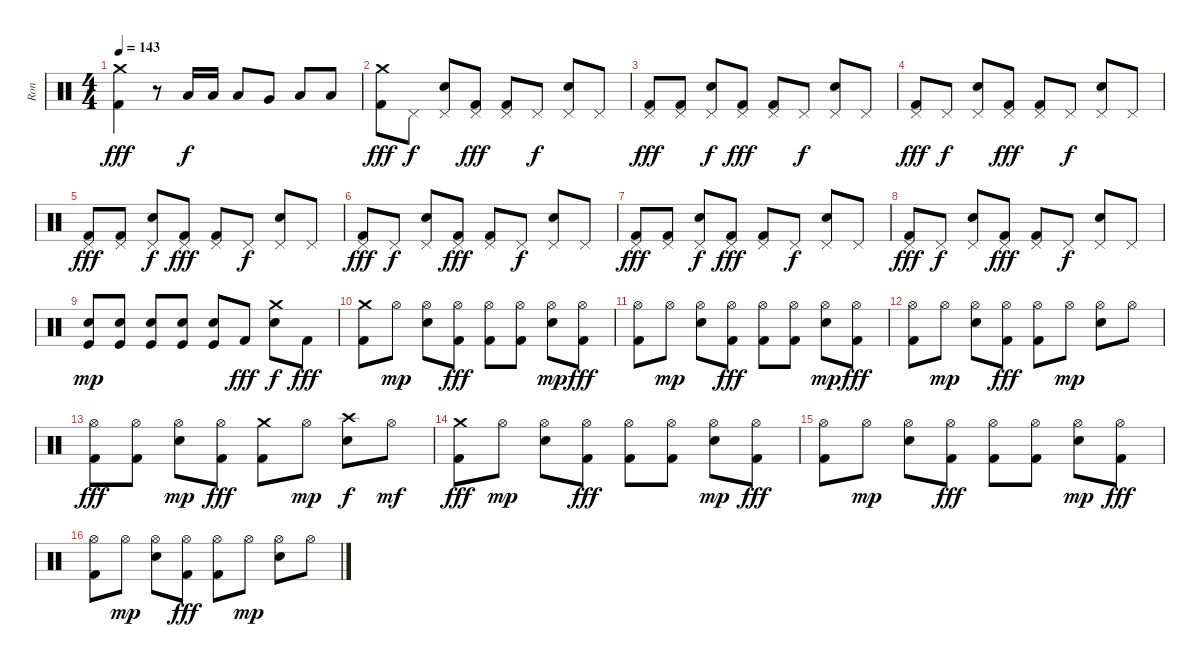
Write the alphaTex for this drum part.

\track ("Ron" "Ron") {instrument percussion}
\staff {score}
\articulation defaults
\ts (4 4)
\tempo 143
\clef neutral
\ks c
("Crash medium (hit)" "Kick (hit) 2").4{dy fff} r.8 "Low Tom (hit)".16{dy f} "Low Tom (hit)".16 "Low Tom (hit)".8 "Very Low Tom (hit)".8 "Low Floor Tom (hit)".8 "Low Floor Tom (hit)".8 |
("Crash medium (hit)" "Kick (hit) 2").8{dy fff} "Pedal Hi-Hat (hit)".8{dy f} ("Pedal Hi-Hat (hit)" "Snare (hit) 2").8 ("Pedal Hi-Hat (hit)" "Kick (hit) 2").8{dy fff} ("Pedal Hi-Hat (hit)" "Kick (hit) 2").8 "Pedal Hi-Hat (hit)".8{dy f} ("Pedal Hi-Hat (hit)" "Snare (hit) 2").8 "Pedal Hi-Hat (hit)".8 |
("Pedal Hi-Hat (hit)" "Kick (hit) 2").8{dy fff} ("Pedal Hi-Hat (hit)" "Kick (hit) 2").8 ("Pedal Hi-Hat (hit)" "Snare (hit) 2").8{dy f} ("Pedal Hi-Hat (hit)" "Kick (hit) 2").8{dy fff} ("Pedal Hi-Hat (hit)" "Kick (hit) 2").8 "Pedal Hi-Hat (hit)".8{dy f} ("Pedal Hi-Hat (hit)" "Snare (hit) 2").8 "Pedal Hi-Hat (hit)".8 |
("Pedal Hi-Hat (hit)" "Kick (hit) 2").8{dy fff} "Pedal Hi-Hat (hit)".8{dy f} ("Pedal Hi-Hat (hit)" "Snare (hit) 2").8 ("Pedal Hi-Hat (hit)" "Kick (hit) 2").8{dy fff} ("Pedal Hi-Hat (hit)" "Kick (hit) 2").8 "Pedal Hi-Hat (hit)".8{dy f} ("Pedal Hi-Hat (hit)" "Snare (hit) 2").8 "Pedal Hi-Hat (hit)".8 |
("Pedal Hi-Hat (hit)" "Kick (hit) 2").8{dy fff} ("Pedal Hi-Hat (hit)" "Kick (hit) 2").8 ("Pedal Hi-Hat (hit)" "Snare (hit) 2").8{dy f} ("Pedal Hi-Hat (hit)" "Kick (hit) 2").8{dy fff} ("Pedal Hi-Hat (hit)" "Kick (hit) 2").8 "Pedal Hi-Hat (hit)".8{dy f} ("Pedal Hi-Hat (hit)" "Snare (hit) 2").8 "Pedal Hi-Hat (hit)".8 |
("Pedal Hi-Hat (hit)" "Kick (hit) 2").8{dy fff} "Pedal Hi-Hat (hit)".8{dy f} ("Pedal Hi-Hat (hit)" "Snare (hit) 2").8 ("Pedal Hi-Hat (hit)" "Kick (hit) 2").8{dy fff} ("Pedal Hi-Hat (hit)" "Kick (hit) 2").8 "Pedal Hi-Hat (hit)".8{dy f} ("Pedal Hi-Hat (hit)" "Snare (hit) 2").8 "Pedal Hi-Hat (hit)".8 |
("Pedal Hi-Hat (hit)" "Kick (hit) 2").8{dy fff} ("Pedal Hi-Hat (hit)" "Kick (hit) 2").8 ("Pedal Hi-Hat (hit)" "Snare (hit) 2").8{dy f} ("Pedal Hi-Hat (hit)" "Kick (hit) 2").8{dy fff} ("Pedal Hi-Hat (hit)" "Kick (hit) 2").8 "Pedal Hi-Hat (hit)".8{dy f} ("Pedal Hi-Hat (hit)" "Snare (hit) 2").8 "Pedal Hi-Hat (hit)".8 |
("Pedal Hi-Hat (hit)" "Kick (hit) 2").8{dy fff} "Pedal Hi-Hat (hit)".8{dy f} ("Pedal Hi-Hat (hit)" "Snare (hit) 2").8 ("Pedal Hi-Hat (hit)" "Kick (hit) 2").8{dy fff} ("Pedal Hi-Hat (hit)" "Kick (hit) 2").8 "Pedal Hi-Hat (hit)".8{dy f} ("Pedal Hi-Hat (hit)" "Snare (hit) 2").8 "Pedal Hi-Hat (hit)".8 |
("Snare (hit) 2" "Kick (hit)").8{dy mp} ("Snare (hit) 2" "Kick (hit)").8 ("Snare (hit) 2" "Kick (hit)").8 ("Snare (hit) 2" "Kick (hit)").8 ("Snare (hit) 2" "Kick (hit)").8 "Kick (hit) 2".8{dy fff} ("Snare (hit) 2" "Crash medium (hit)").8{dy f} "Kick (hit) 2".8{dy fff} |
("Crash medium (hit)" "Kick (hit) 2").8 "Hi-Hat (open)".8{dy mp} ("Hi-Hat (open)" "Snare (hit) 2").8 ("Hi-Hat (open)" "Kick (hit) 2").8{dy fff} ("Hi-Hat (open)" "Kick (hit) 2").8 ("Hi-Hat (open)" "Kick (hit) 2").8 ("Hi-Hat (open)" "Snare (hit) 2").8{dy mp} ("Hi-Hat (open)" "Kick (hit) 2").8{dy fff} |
("Hi-Hat (open)" "Kick (hit) 2").8 "Hi-Hat (open)".8{dy mp} ("Hi-Hat (open)" "Snare (hit) 2").8 ("Hi-Hat (open)" "Kick (hit) 2").8{dy fff} ("Hi-Hat (open)" "Kick (hit) 2").8 ("Hi-Hat (open)" "Kick (hit) 2").8 ("Hi-Hat (open)" "Snare (hit) 2").8{dy mp} ("Hi-Hat (open)" "Kick (hit) 2").8{dy fff} |
("Hi-Hat (open)" "Kick (hit) 2").8 "Hi-Hat (open)".8{dy mp} ("Hi-Hat (open)" "Snare (hit) 2").8 ("Hi-Hat (open)" "Kick (hit) 2").8{dy fff} ("Hi-Hat (open)" "Kick (hit) 2").8 "Hi-Hat (open)".8{dy mp} ("Hi-Hat (open)" "Snare (hit) 2").8 "Hi-Hat (open)".8 |
("Hi-Hat (open)" "Kick (hit) 2").8{dy fff} ("Hi-Hat (open)" "Kick (hit) 2").8 ("Hi-Hat (open)" "Snare (hit) 2").8{dy mp} ("Hi-Hat (open)" "Kick (hit) 2").8{dy fff} ("Crash medium (hit)" "Kick (hit) 2").8 "Hi-Hat (open)".8{dy mp} ("Crash high (hit)" "Snare (hit) 2").8{dy f} "Hi-Hat (open)".8{dy mf} |
("Crash medium (hit)" "Kick (hit) 2").8{dy fff} "Hi-Hat (open)".8{dy mp} ("Hi-Hat (open)" "Snare (hit) 2").8 ("Hi-Hat (open)" "Kick (hit) 2").8{dy fff} ("Hi-Hat (open)" "Kick (hit) 2").8 ("Hi-Hat (open)" "Kick (hit) 2").8 ("Hi-Hat (open)" "Snare (hit) 2").8{dy mp} ("Hi-Hat (open)" "Kick (hit) 2").8{dy fff} |
("Hi-Hat (open)" "Kick (hit) 2").8 "Hi-Hat (open)".8{dy mp} ("Hi-Hat (open)" "Snare (hit) 2").8 ("Hi-Hat (open)" "Kick (hit) 2").8{dy fff} ("Hi-Hat (open)" "Kick (hit) 2").8 ("Hi-Hat (open)" "Kick (hit) 2").8 ("Hi-Hat (open)" "Snare (hit) 2").8{dy mp} ("Hi-Hat (open)" "Kick (hit) 2").8{dy fff} |
("Hi-Hat (open)" "Kick (hit) 2").8 "Hi-Hat (open)".8{dy mp} ("Hi-Hat (open)" "Snare (hit) 2").8 ("Hi-Hat (open)" "Kick (hit) 2").8{dy fff} ("Hi-Hat (open)" "Kick (hit) 2").8 "Hi-Hat (open)".8{dy mp} ("Hi-Hat (open)" "Snare (hit) 2").8 "Hi-Hat (open)".8
